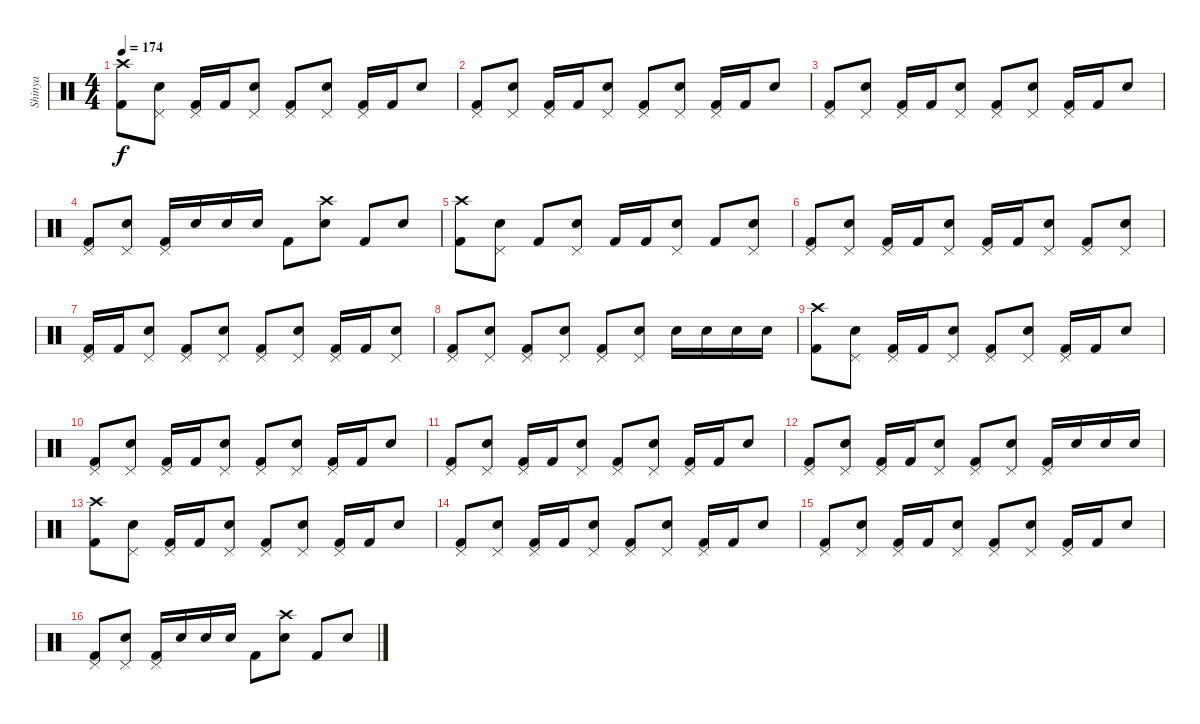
\track ("Shinya" "Shinya") {instrument percussion}
\staff {score}
\articulation defaults
\ts (4 4)
\tempo 174
\clef neutral
\ks c
("Crash high (hit)" "Kick (hit) 2").8{dy f} ("Pedal Hi-Hat (hit)" "Electric Snare (hit)").8 ("Pedal Hi-Hat (hit)" "Kick (hit) 2").16 "Kick (hit) 2".16 ("Pedal Hi-Hat (hit)" "Electric Snare (hit)").8 ("Pedal Hi-Hat (hit)" "Kick (hit) 2").8 ("Pedal Hi-Hat (hit)" "Electric Snare (hit)").8 ("Pedal Hi-Hat (hit)" "Kick (hit) 2").16 "Kick (hit) 2".16 "Electric Snare (hit)".8 |
("Pedal Hi-Hat (hit)" "Kick (hit) 2").8 ("Pedal Hi-Hat (hit)" "Electric Snare (hit)").8 ("Pedal Hi-Hat (hit)" "Kick (hit) 2").16 "Kick (hit) 2".16 ("Pedal Hi-Hat (hit)" "Electric Snare (hit)").8 ("Pedal Hi-Hat (hit)" "Kick (hit) 2").8 ("Pedal Hi-Hat (hit)" "Electric Snare (hit)").8 ("Pedal Hi-Hat (hit)" "Kick (hit) 2").16 "Kick (hit) 2".16 "Electric Snare (hit)".8 |
("Pedal Hi-Hat (hit)" "Kick (hit) 2").8 ("Pedal Hi-Hat (hit)" "Electric Snare (hit)").8 ("Pedal Hi-Hat (hit)" "Kick (hit) 2").16 "Kick (hit) 2".16 ("Pedal Hi-Hat (hit)" "Electric Snare (hit)").8 ("Pedal Hi-Hat (hit)" "Kick (hit) 2").8 ("Pedal Hi-Hat (hit)" "Electric Snare (hit)").8 ("Pedal Hi-Hat (hit)" "Kick (hit) 2").16 "Kick (hit) 2".16 "Electric Snare (hit)".8 |
("Pedal Hi-Hat (hit)" "Kick (hit) 2").8 ("Pedal Hi-Hat (hit)" "Electric Snare (hit)").8 ("Pedal Hi-Hat (hit)" "Kick (hit) 2").16 "Electric Snare (hit)".16 "Electric Snare (hit)".16 "Electric Snare (hit)".16 "Kick (hit) 2".8 ("Crash high (hit)" "Electric Snare (hit)").8 "Kick (hit) 2".8 "Electric Snare (hit)".8 |
("Crash high (hit)" "Kick (hit) 2").8 ("Pedal Hi-Hat (hit)" "Electric Snare (hit)").8 "Kick (hit) 2".8 ("Pedal Hi-Hat (hit)" "Electric Snare (hit)").8 "Kick (hit) 2".16 "Kick (hit) 2".16 ("Pedal Hi-Hat (hit)" "Electric Snare (hit)").8 "Kick (hit) 2".8 ("Pedal Hi-Hat (hit)" "Electric Snare (hit)").8 |
("Pedal Hi-Hat (hit)" "Kick (hit) 2").8 ("Pedal Hi-Hat (hit)" "Electric Snare (hit)").8 ("Pedal Hi-Hat (hit)" "Kick (hit) 2").16 "Kick (hit) 2".16 ("Pedal Hi-Hat (hit)" "Electric Snare (hit)").8 ("Pedal Hi-Hat (hit)" "Kick (hit) 2").16 "Kick (hit) 2".16 ("Pedal Hi-Hat (hit)" "Electric Snare (hit)").8 ("Pedal Hi-Hat (hit)" "Kick (hit) 2").8 ("Pedal Hi-Hat (hit)" "Electric Snare (hit)").8 |
("Pedal Hi-Hat (hit)" "Kick (hit) 2").16 "Kick (hit) 2".16 ("Pedal Hi-Hat (hit)" "Electric Snare (hit)").8 ("Pedal Hi-Hat (hit)" "Kick (hit) 2").8 ("Pedal Hi-Hat (hit)" "Electric Snare (hit)").8 ("Pedal Hi-Hat (hit)" "Kick (hit) 2").8 ("Pedal Hi-Hat (hit)" "Electric Snare (hit)").8 ("Pedal Hi-Hat (hit)" "Kick (hit) 2").16 "Kick (hit) 2".16 ("Pedal Hi-Hat (hit)" "Electric Snare (hit)").8 |
("Pedal Hi-Hat (hit)" "Kick (hit) 2").8 ("Pedal Hi-Hat (hit)" "Electric Snare (hit)").8 ("Pedal Hi-Hat (hit)" "Kick (hit) 2").8 ("Pedal Hi-Hat (hit)" "Electric Snare (hit)").8 ("Pedal Hi-Hat (hit)" "Kick (hit) 2").8 ("Pedal Hi-Hat (hit)" "Electric Snare (hit)").8 "Electric Snare (hit)".16 "Electric Snare (hit)".16 "Electric Snare (hit)".16 "Electric Snare (hit)".16 |
("Crash high (hit)" "Kick (hit) 2").8 ("Pedal Hi-Hat (hit)" "Electric Snare (hit)").8 ("Pedal Hi-Hat (hit)" "Kick (hit) 2").16 "Kick (hit) 2".16 ("Pedal Hi-Hat (hit)" "Electric Snare (hit)").8 ("Pedal Hi-Hat (hit)" "Kick (hit) 2").8 ("Pedal Hi-Hat (hit)" "Electric Snare (hit)").8 ("Pedal Hi-Hat (hit)" "Kick (hit) 2").16 "Kick (hit) 2".16 "Electric Snare (hit)".8 |
("Pedal Hi-Hat (hit)" "Kick (hit) 2").8 ("Pedal Hi-Hat (hit)" "Electric Snare (hit)").8 ("Pedal Hi-Hat (hit)" "Kick (hit) 2").16 "Kick (hit) 2".16 ("Pedal Hi-Hat (hit)" "Electric Snare (hit)").8 ("Pedal Hi-Hat (hit)" "Kick (hit) 2").8 ("Pedal Hi-Hat (hit)" "Electric Snare (hit)").8 ("Pedal Hi-Hat (hit)" "Kick (hit) 2").16 "Kick (hit) 2".16 "Electric Snare (hit)".8 |
("Pedal Hi-Hat (hit)" "Kick (hit) 2").8 ("Pedal Hi-Hat (hit)" "Electric Snare (hit)").8 ("Pedal Hi-Hat (hit)" "Kick (hit) 2").16 "Kick (hit) 2".16 ("Pedal Hi-Hat (hit)" "Electric Snare (hit)").8 ("Pedal Hi-Hat (hit)" "Kick (hit) 2").8 ("Pedal Hi-Hat (hit)" "Electric Snare (hit)").8 ("Pedal Hi-Hat (hit)" "Kick (hit) 2").16 "Kick (hit) 2".16 "Electric Snare (hit)".8 |
("Pedal Hi-Hat (hit)" "Kick (hit) 2").8 ("Pedal Hi-Hat (hit)" "Electric Snare (hit)").8 ("Pedal Hi-Hat (hit)" "Kick (hit) 2").16 "Kick (hit) 2".16 ("Pedal Hi-Hat (hit)" "Electric Snare (hit)").8 ("Pedal Hi-Hat (hit)" "Kick (hit) 2").8 ("Pedal Hi-Hat (hit)" "Electric Snare (hit)").8 ("Pedal Hi-Hat (hit)" "Kick (hit) 2").16 "Electric Snare (hit)".16 "Electric Snare (hit)".16 "Electric Snare (hit)".16 |
("Crash high (hit)" "Kick (hit) 2").8 ("Pedal Hi-Hat (hit)" "Electric Snare (hit)").8 ("Pedal Hi-Hat (hit)" "Kick (hit) 2").16 "Kick (hit) 2".16 ("Pedal Hi-Hat (hit)" "Electric Snare (hit)").8 ("Pedal Hi-Hat (hit)" "Kick (hit) 2").8 ("Pedal Hi-Hat (hit)" "Electric Snare (hit)").8 ("Pedal Hi-Hat (hit)" "Kick (hit) 2").16 "Kick (hit) 2".16 "Electric Snare (hit)".8 |
("Pedal Hi-Hat (hit)" "Kick (hit) 2").8 ("Pedal Hi-Hat (hit)" "Electric Snare (hit)").8 ("Pedal Hi-Hat (hit)" "Kick (hit) 2").16 "Kick (hit) 2".16 ("Pedal Hi-Hat (hit)" "Electric Snare (hit)").8 ("Pedal Hi-Hat (hit)" "Kick (hit) 2").8 ("Pedal Hi-Hat (hit)" "Electric Snare (hit)").8 ("Pedal Hi-Hat (hit)" "Kick (hit) 2").16 "Kick (hit) 2".16 "Electric Snare (hit)".8 |
("Pedal Hi-Hat (hit)" "Kick (hit) 2").8 ("Pedal Hi-Hat (hit)" "Electric Snare (hit)").8 ("Pedal Hi-Hat (hit)" "Kick (hit) 2").16 "Kick (hit) 2".16 ("Pedal Hi-Hat (hit)" "Electric Snare (hit)").8 ("Pedal Hi-Hat (hit)" "Kick (hit) 2").8 ("Pedal Hi-Hat (hit)" "Electric Snare (hit)").8 ("Pedal Hi-Hat (hit)" "Kick (hit) 2").16 "Kick (hit) 2".16 "Electric Snare (hit)".8 |
("Pedal Hi-Hat (hit)" "Kick (hit) 2").8 ("Pedal Hi-Hat (hit)" "Electric Snare (hit)").8 ("Pedal Hi-Hat (hit)" "Kick (hit) 2").16 "Electric Snare (hit)".16 "Electric Snare (hit)".16 "Electric Snare (hit)".16 "Kick (hit) 2".8 ("Crash high (hit)" "Electric Snare (hit)").8 "Kick (hit) 2".8 "Electric Snare (hit)".8
